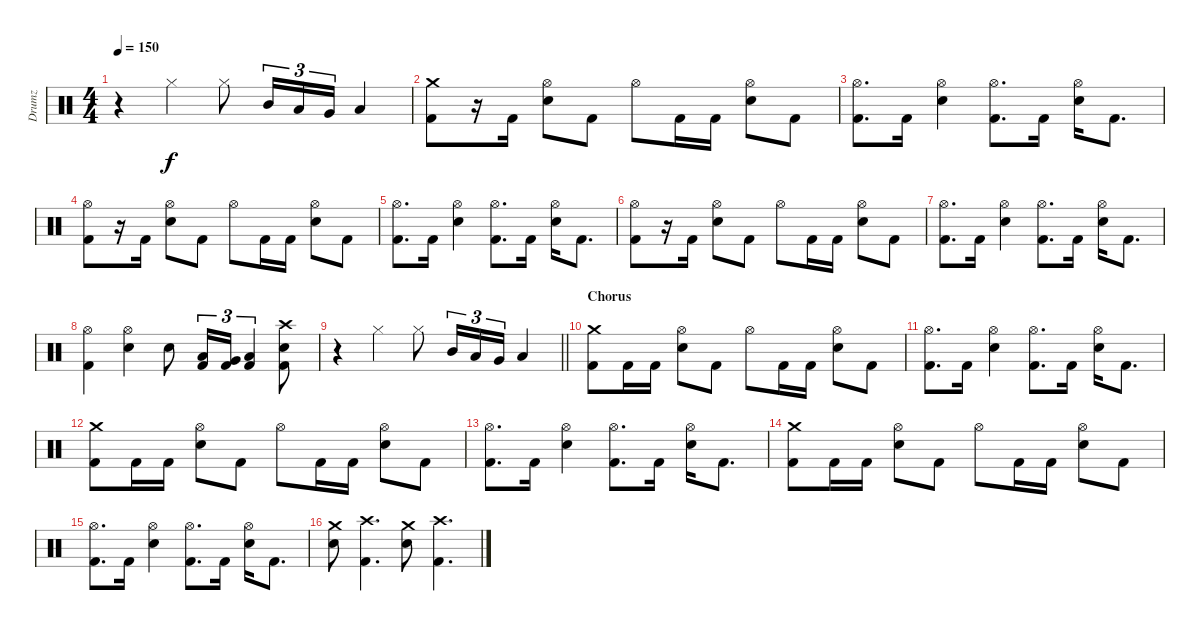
\track ("Drumz" "Drumz") {instrument percussion}
\staff {score}
\articulation defaults
\ts (4 4)
\tempo 150
\clef neutral
\ks c
r.4{dy f} "Hi-Hat (closed)".4 "Hi-Hat (closed)".8 "Mid Tom (hit)".16{tu (3 2)} "Low Tom (hit)".16{tu (3 2)} "Very Low Tom (hit)".16{tu (3 2)} "Low Floor Tom (hit)".4 |
("Crash medium (hit)" "Kick (hit) 2").8 r.16 "Kick (hit) 2".16 ("Hi-Hat (open)" "Electric Snare (hit)").8 "Kick (hit) 2".8 "Hi-Hat (open)".8 "Kick (hit) 2".16 "Kick (hit) 2".16 ("Hi-Hat (open)" "Electric Snare (hit)").8 "Kick (hit) 2".8 |
("Hi-Hat (open)" "Kick (hit) 2").8{d} "Kick (hit) 2".16 ("Hi-Hat (open)" "Electric Snare (hit)").4 ("Hi-Hat (open)" "Kick (hit) 2").8{d} "Kick (hit) 2".16 ("Hi-Hat (open)" "Electric Snare (hit)").16 "Kick (hit) 2".8{d} |
("Hi-Hat (open)" "Kick (hit) 2").8 r.16 "Kick (hit) 2".16 ("Hi-Hat (open)" "Electric Snare (hit)").8 "Kick (hit) 2".8 "Hi-Hat (open)".8 "Kick (hit) 2".16 "Kick (hit) 2".16 ("Hi-Hat (open)" "Electric Snare (hit)").8 "Kick (hit) 2".8 |
("Hi-Hat (open)" "Kick (hit) 2").8{d} "Kick (hit) 2".16 ("Hi-Hat (open)" "Electric Snare (hit)").4 ("Hi-Hat (open)" "Kick (hit) 2").8{d} "Kick (hit) 2".16 ("Hi-Hat (open)" "Electric Snare (hit)").16 "Kick (hit) 2".8{d} |
("Hi-Hat (open)" "Kick (hit) 2").8 r.16 "Kick (hit) 2".16 ("Hi-Hat (open)" "Electric Snare (hit)").8 "Kick (hit) 2".8 "Hi-Hat (open)".8 "Kick (hit) 2".16 "Kick (hit) 2".16 ("Hi-Hat (open)" "Electric Snare (hit)").8 "Kick (hit) 2".8 |
("Hi-Hat (open)" "Kick (hit) 2").8{d} "Kick (hit) 2".16 ("Hi-Hat (open)" "Electric Snare (hit)").4 ("Hi-Hat (open)" "Kick (hit) 2").8{d} "Kick (hit) 2".16 ("Hi-Hat (open)" "Electric Snare (hit)").16 "Kick (hit) 2".8{d} |
("Hi-Hat (open)" "Kick (hit) 2").4 ("Hi-Hat (open)" "Electric Snare (hit)").4 "Electric Snare (hit)".8 ("Low Tom (hit)" "Kick (hit) 2").16{tu (3 2)} ("Very Low Tom (hit)" "Kick (hit) 2").16{tu (3 2)} ("Low Floor Tom (hit)" "Kick (hit) 2").4{tu (3 2)} ("Crash high (hit)" "Electric Snare (hit)" "Kick (hit) 2").8 |
\barLineRight lightlight
r.4 "Hi-Hat (closed)".4 "Hi-Hat (closed)".8 "Mid Tom (hit)".16{tu (3 2)} "Low Tom (hit)".16{tu (3 2)} "Very Low Tom (hit)".16{tu (3 2)} "Low Floor Tom (hit)".4 |
\section ("" "Chorus")
("Crash medium (hit)" "Kick (hit) 2").8 "Kick (hit) 2".16 "Kick (hit) 2".16 ("Hi-Hat (open)" "Electric Snare (hit)").8 "Kick (hit) 2".8 "Hi-Hat (open)".8 "Kick (hit) 2".16 "Kick (hit) 2".16 ("Hi-Hat (open)" "Electric Snare (hit)").8 "Kick (hit) 2".8 |
("Hi-Hat (open)" "Kick (hit) 2").8{d} "Kick (hit) 2".16 ("Hi-Hat (open)" "Electric Snare (hit)").4 ("Hi-Hat (open)" "Kick (hit) 2").8{d} "Kick (hit) 2".16 ("Hi-Hat (open)" "Electric Snare (hit)").16 "Kick (hit) 2".8{d} |
("Crash medium (hit)" "Kick (hit) 2").8 "Kick (hit) 2".16 "Kick (hit) 2".16 ("Hi-Hat (open)" "Electric Snare (hit)").8 "Kick (hit) 2".8 "Hi-Hat (open)".8 "Kick (hit) 2".16 "Kick (hit) 2".16 ("Hi-Hat (open)" "Electric Snare (hit)").8 "Kick (hit) 2".8 |
("Hi-Hat (open)" "Kick (hit) 2").8{d} "Kick (hit) 2".16 ("Hi-Hat (open)" "Electric Snare (hit)").4 ("Hi-Hat (open)" "Kick (hit) 2").8{d} "Kick (hit) 2".16 ("Hi-Hat (open)" "Electric Snare (hit)").16 "Kick (hit) 2".8{d} |
("Crash medium (hit)" "Kick (hit) 2").8 "Kick (hit) 2".16 "Kick (hit) 2".16 ("Hi-Hat (open)" "Electric Snare (hit)").8 "Kick (hit) 2".8 "Hi-Hat (open)".8 "Kick (hit) 2".16 "Kick (hit) 2".16 ("Hi-Hat (open)" "Electric Snare (hit)").8 "Kick (hit) 2".8 |
("Hi-Hat (open)" "Kick (hit) 2").8{d} "Kick (hit) 2".16 ("Hi-Hat (open)" "Electric Snare (hit)").4 ("Hi-Hat (open)" "Kick (hit) 2").8{d} "Kick (hit) 2".16 ("Hi-Hat (open)" "Electric Snare (hit)").16 "Kick (hit) 2".8{d} |
("Crash medium (hit)" "Electric Snare (hit)").8 ("Crash high (hit)" "Kick (hit) 2").4{d} ("Crash medium (hit)" "Electric Snare (hit)").8 ("Crash high (hit)" "Kick (hit) 2").4{d}
